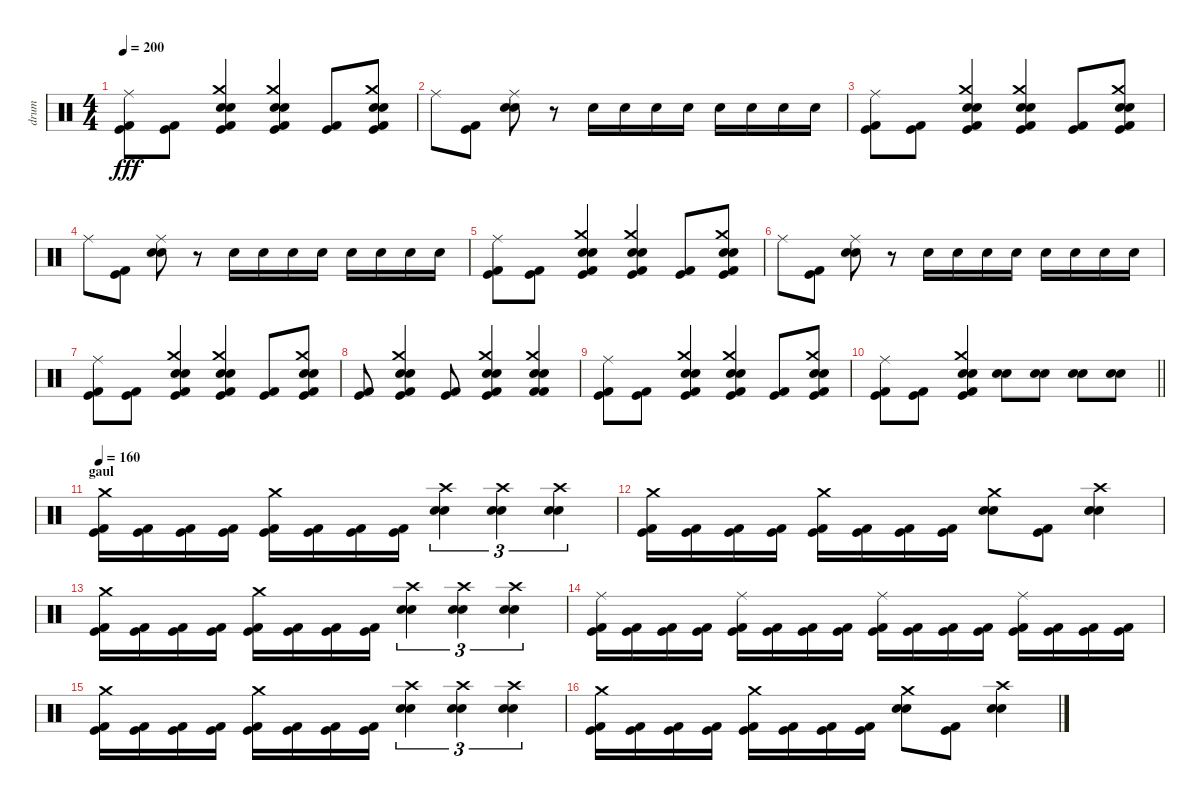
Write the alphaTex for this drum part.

\track ("drum" "drum") {instrument percussion}
\staff {score}
\articulation defaults
\ts (4 4)
\tempo 200
\clef neutral
\ks c
("Ride (middle)" "Kick (hit)" "Kick (hit) 2").8{dy fff} ("Kick (hit)" "Kick (hit) 2").8 ("Crash medium (hit)" "Electric Snare (hit)" "Electric Snare (hit)" "Kick (hit)" "Kick (hit) 2").4 ("Crash medium (hit)" "Electric Snare (hit)" "Electric Snare (hit)" "Kick (hit)" "Kick (hit) 2").4 ("Kick (hit)" "Kick (hit) 2").8 ("Crash medium (hit)" "Electric Snare (hit)" "Electric Snare (hit)" "Kick (hit)" "Kick (hit) 2").8 |
"Ride (middle)".8 ("Kick (hit)" "Kick (hit) 2").8 ("Ride (middle)" "Electric Snare (hit)" "Electric Snare (hit)").8 r.8 "Electric Snare (hit)".16 "Electric Snare (hit)".16 "Electric Snare (hit)".16 "Electric Snare (hit)".16 "Electric Snare (hit)".16 "Electric Snare (hit)".16 "Electric Snare (hit)".16 "Electric Snare (hit)".16 |
("Ride (middle)" "Kick (hit)" "Kick (hit) 2").8 ("Kick (hit)" "Kick (hit) 2").8 ("Crash medium (hit)" "Electric Snare (hit)" "Electric Snare (hit)" "Kick (hit)" "Kick (hit) 2").4 ("Crash medium (hit)" "Electric Snare (hit)" "Electric Snare (hit)" "Kick (hit)" "Kick (hit) 2").4 ("Kick (hit)" "Kick (hit) 2").8 ("Crash medium (hit)" "Electric Snare (hit)" "Electric Snare (hit)" "Kick (hit)" "Kick (hit) 2").8 |
"Ride (middle)".8 ("Kick (hit)" "Kick (hit) 2").8 ("Ride (middle)" "Electric Snare (hit)" "Electric Snare (hit)").8 r.8 "Electric Snare (hit)".16 "Electric Snare (hit)".16 "Electric Snare (hit)".16 "Electric Snare (hit)".16 "Electric Snare (hit)".16 "Electric Snare (hit)".16 "Electric Snare (hit)".16 "Electric Snare (hit)".16 |
("Ride (middle)" "Kick (hit)" "Kick (hit) 2").8 ("Kick (hit)" "Kick (hit) 2").8 ("Crash medium (hit)" "Electric Snare (hit)" "Electric Snare (hit)" "Kick (hit)" "Kick (hit) 2").4 ("Crash medium (hit)" "Electric Snare (hit)" "Electric Snare (hit)" "Kick (hit)" "Kick (hit) 2").4 ("Kick (hit)" "Kick (hit) 2").8 ("Crash medium (hit)" "Electric Snare (hit)" "Electric Snare (hit)" "Kick (hit)" "Kick (hit) 2").8 |
"Ride (middle)".8 ("Kick (hit)" "Kick (hit) 2").8 ("Ride (middle)" "Electric Snare (hit)" "Electric Snare (hit)").8 r.8 "Electric Snare (hit)".16 "Electric Snare (hit)".16 "Electric Snare (hit)".16 "Electric Snare (hit)".16 "Electric Snare (hit)".16 "Electric Snare (hit)".16 "Electric Snare (hit)".16 "Electric Snare (hit)".16 |
("Ride (middle)" "Kick (hit)" "Kick (hit) 2").8 ("Kick (hit)" "Kick (hit) 2").8 ("Crash medium (hit)" "Electric Snare (hit)" "Electric Snare (hit)" "Kick (hit)" "Kick (hit) 2").4 ("Crash medium (hit)" "Electric Snare (hit)" "Electric Snare (hit)" "Kick (hit)" "Kick (hit) 2").4 ("Kick (hit)" "Kick (hit) 2").8 ("Crash medium (hit)" "Electric Snare (hit)" "Electric Snare (hit)" "Kick (hit)" "Kick (hit) 2").8 |
("Kick (hit)" "Kick (hit) 2").8 ("Crash medium (hit)" "Electric Snare (hit)" "Electric Snare (hit)" "Kick (hit)" "Kick (hit) 2").4 ("Kick (hit)" "Kick (hit) 2").8 ("Crash medium (hit)" "Electric Snare (hit)" "Electric Snare (hit)" "Kick (hit)" "Kick (hit) 2").4 ("Crash medium (hit)" "Electric Snare (hit)" "Electric Snare (hit)" "Kick (hit) 2" "Kick (hit) 2").4 |
("Ride (middle)" "Kick (hit)" "Kick (hit) 2").8 ("Kick (hit)" "Kick (hit) 2").8 ("Crash medium (hit)" "Electric Snare (hit)" "Electric Snare (hit)" "Kick (hit)" "Kick (hit) 2").4 ("Crash medium (hit)" "Electric Snare (hit)" "Electric Snare (hit)" "Kick (hit)" "Kick (hit) 2").4 ("Kick (hit)" "Kick (hit) 2").8 ("Crash medium (hit)" "Electric Snare (hit)" "Electric Snare (hit)" "Kick (hit)" "Kick (hit) 2").8 |
\barLineRight lightlight
("Ride (middle)" "Kick (hit)" "Kick (hit) 2").8 ("Kick (hit)" "Kick (hit) 2").8 ("Crash medium (hit)" "Electric Snare (hit)" "Electric Snare (hit)" "Kick (hit)" "Kick (hit) 2").4 ("Electric Snare (hit)" "Electric Snare (hit)").8 ("Electric Snare (hit)" "Electric Snare (hit)").8 ("Electric Snare (hit)" "Electric Snare (hit)").8 ("Electric Snare (hit)" "Electric Snare (hit)").8 |
\section ("" "gaul")
\tempo 160
("Crash medium (hit)" "Kick (hit)" "Kick (hit) 2").16 ("Kick (hit)" "Kick (hit) 2").16 ("Kick (hit)" "Kick (hit) 2").16 ("Kick (hit)" "Kick (hit) 2").16 ("Crash medium (hit)" "Kick (hit)" "Kick (hit) 2").16 ("Kick (hit)" "Kick (hit) 2").16 ("Kick (hit)" "Kick (hit) 2").16 ("Kick (hit)" "Kick (hit) 2").16 ("Crash high (hit)" "Electric Snare (hit)" "Electric Snare (hit)").4{tu (3 2)} ("Crash high (hit)" "Electric Snare (hit)" "Electric Snare (hit)").4{tu (3 2)} ("Crash high (hit)" "Electric Snare (hit)" "Electric Snare (hit)").4{tu (3 2)} |
("Crash medium (hit)" "Kick (hit)" "Kick (hit) 2").16 ("Kick (hit)" "Kick (hit) 2").16 ("Kick (hit)" "Kick (hit) 2").16 ("Kick (hit)" "Kick (hit) 2").16 ("Crash medium (hit)" "Kick (hit)" "Kick (hit) 2").16 ("Kick (hit)" "Kick (hit) 2").16 ("Kick (hit)" "Kick (hit) 2").16 ("Kick (hit)" "Kick (hit) 2").16 ("Crash medium (hit)" "Electric Snare (hit)" "Electric Snare (hit)").8 ("Kick (hit)" "Kick (hit) 2").8 ("Crash high (hit)" "Electric Snare (hit)" "Electric Snare (hit)").4 |
("Crash medium (hit)" "Kick (hit)" "Kick (hit) 2").16 ("Kick (hit)" "Kick (hit) 2").16 ("Kick (hit)" "Kick (hit) 2").16 ("Kick (hit)" "Kick (hit) 2").16 ("Crash medium (hit)" "Kick (hit)" "Kick (hit) 2").16 ("Kick (hit)" "Kick (hit) 2").16 ("Kick (hit)" "Kick (hit) 2").16 ("Kick (hit)" "Kick (hit) 2").16 ("Crash high (hit)" "Electric Snare (hit)" "Electric Snare (hit)").4{tu (3 2)} ("Crash high (hit)" "Electric Snare (hit)" "Electric Snare (hit)").4{tu (3 2)} ("Crash high (hit)" "Electric Snare (hit)" "Electric Snare (hit)").4{tu (3 2)} |
("Ride (middle)" "Kick (hit)" "Kick (hit) 2").16 ("Kick (hit)" "Kick (hit) 2").16 ("Kick (hit)" "Kick (hit) 2").16 ("Kick (hit)" "Kick (hit) 2").16 ("Ride (middle)" "Kick (hit)" "Kick (hit) 2").16 ("Kick (hit)" "Kick (hit) 2").16 ("Kick (hit)" "Kick (hit) 2").16 ("Kick (hit)" "Kick (hit) 2").16 ("Ride (middle)" "Kick (hit)" "Kick (hit) 2").16 ("Kick (hit)" "Kick (hit) 2").16 ("Kick (hit)" "Kick (hit) 2").16 ("Kick (hit)" "Kick (hit) 2").16 ("Ride (middle)" "Kick (hit)" "Kick (hit) 2").16 ("Kick (hit)" "Kick (hit) 2").16 ("Kick (hit)" "Kick (hit) 2").16 ("Kick (hit)" "Kick (hit) 2").16 |
("Crash medium (hit)" "Kick (hit)" "Kick (hit) 2").16 ("Kick (hit)" "Kick (hit) 2").16 ("Kick (hit)" "Kick (hit) 2").16 ("Kick (hit)" "Kick (hit) 2").16 ("Crash medium (hit)" "Kick (hit)" "Kick (hit) 2").16 ("Kick (hit)" "Kick (hit) 2").16 ("Kick (hit)" "Kick (hit) 2").16 ("Kick (hit)" "Kick (hit) 2").16 ("Crash high (hit)" "Electric Snare (hit)" "Electric Snare (hit)").4{tu (3 2)} ("Crash high (hit)" "Electric Snare (hit)" "Electric Snare (hit)").4{tu (3 2)} ("Crash high (hit)" "Electric Snare (hit)" "Electric Snare (hit)").4{tu (3 2)} |
("Crash medium (hit)" "Kick (hit)" "Kick (hit) 2").16 ("Kick (hit)" "Kick (hit) 2").16 ("Kick (hit)" "Kick (hit) 2").16 ("Kick (hit)" "Kick (hit) 2").16 ("Crash medium (hit)" "Kick (hit)" "Kick (hit) 2").16 ("Kick (hit)" "Kick (hit) 2").16 ("Kick (hit)" "Kick (hit) 2").16 ("Kick (hit)" "Kick (hit) 2").16 ("Crash medium (hit)" "Electric Snare (hit)" "Electric Snare (hit)").8 ("Kick (hit)" "Kick (hit) 2").8 ("Crash high (hit)" "Electric Snare (hit)" "Electric Snare (hit)").4
